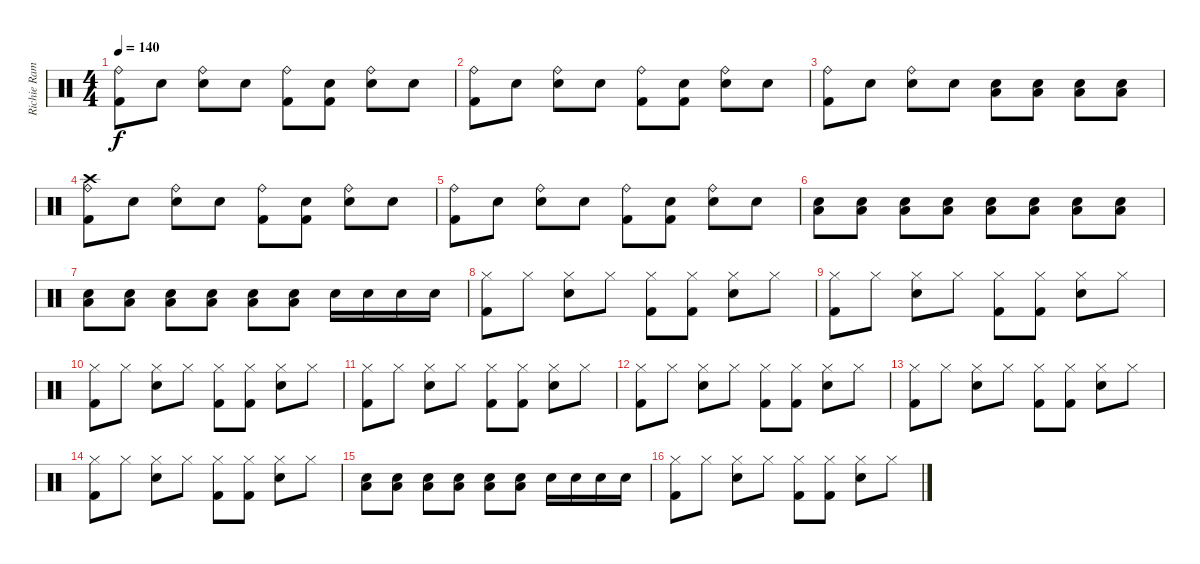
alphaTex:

\track ("Richie Ramone - Drums" "Richie Ram") {instrument percussion}
\staff {score}
\articulation defaults
\ts (4 4)
\tempo 140
\clef neutral
\ks c
("Ride (bell)" "Kick (hit) 2").8{dy f} "Snare (hit)"{x}.8 ("Ride (bell)" "Electric Snare (hit)").8 "Snare (hit)"{x}.8 ("Ride (bell)" "Kick (hit) 2").8 ("Snare (hit)"{x} "Kick (hit) 2").8 ("Ride (bell)" "Electric Snare (hit)").8 "Snare (hit)"{x}.8 |
("Ride (bell)" "Kick (hit) 2").8 "Snare (hit)"{x}.8 ("Ride (bell)" "Electric Snare (hit)").8 "Snare (hit)"{x}.8 ("Ride (bell)" "Kick (hit) 2").8 ("Snare (hit)"{x} "Kick (hit) 2").8 ("Ride (bell)" "Electric Snare (hit)").8 "Snare (hit)"{x}.8 |
("Ride (bell)" "Kick (hit) 2").8 "Snare (hit)"{x}.8 ("Ride (bell)" "Electric Snare (hit)").8 "Snare (hit)"{x}.8 ("Electric Snare (hit)" "Low Tom (hit)").8 ("Electric Snare (hit)" "Low Tom (hit)").8 ("Electric Snare (hit)" "Low Tom (hit)").8 ("Electric Snare (hit)" "Low Tom (hit)").8 |
("Ride (bell)" "Kick (hit) 2" "Crash high (hit)").8 "Snare (hit)"{x}.8 ("Ride (bell)" "Electric Snare (hit)").8 "Snare (hit)"{x}.8 ("Ride (bell)" "Kick (hit) 2").8 ("Snare (hit)"{x} "Kick (hit) 2").8 ("Ride (bell)" "Electric Snare (hit)").8 "Snare (hit)"{x}.8 |
("Ride (bell)" "Kick (hit) 2").8 "Snare (hit)"{x}.8 ("Ride (bell)" "Electric Snare (hit)").8 "Snare (hit)"{x}.8 ("Ride (bell)" "Kick (hit) 2").8 ("Snare (hit)"{x} "Kick (hit) 2").8 ("Ride (bell)" "Electric Snare (hit)").8 "Snare (hit)"{x}.8 |
("Electric Snare (hit)" "Low Tom (hit)").8 ("Electric Snare (hit)" "Low Tom (hit)").8 ("Electric Snare (hit)" "Low Tom (hit)").8 ("Electric Snare (hit)" "Low Tom (hit)").8 ("Electric Snare (hit)" "Low Tom (hit)").8 ("Electric Snare (hit)" "Low Tom (hit)").8 ("Electric Snare (hit)" "Low Tom (hit)").8 ("Electric Snare (hit)" "Low Tom (hit)").8 |
("Electric Snare (hit)" "Low Tom (hit)").8 ("Electric Snare (hit)" "Low Tom (hit)").8 ("Electric Snare (hit)" "Low Tom (hit)").8 ("Electric Snare (hit)" "Low Tom (hit)").8 ("Electric Snare (hit)" "Low Tom (hit)").8 ("Electric Snare (hit)" "Low Tom (hit)").8 "Electric Snare (hit)".16 "Electric Snare (hit)".16 "Electric Snare (hit)".16 "Electric Snare (hit)".16 |
("Hi-Hat (closed)" "Kick (hit) 2").8 "Hi-Hat (closed)".8 ("Hi-Hat (closed)" "Electric Snare (hit)").8 "Hi-Hat (closed)".8 ("Hi-Hat (closed)" "Kick (hit) 2").8 ("Hi-Hat (closed)" "Kick (hit) 2").8 ("Hi-Hat (closed)" "Electric Snare (hit)").8 "Hi-Hat (closed)".8 |
("Hi-Hat (closed)" "Kick (hit) 2").8 "Hi-Hat (closed)".8 ("Hi-Hat (closed)" "Electric Snare (hit)").8 "Hi-Hat (closed)".8 ("Hi-Hat (closed)" "Kick (hit) 2").8 ("Hi-Hat (closed)" "Kick (hit) 2").8 ("Hi-Hat (closed)" "Electric Snare (hit)").8 "Hi-Hat (closed)".8 |
("Hi-Hat (closed)" "Kick (hit) 2").8 "Hi-Hat (closed)".8 ("Hi-Hat (closed)" "Electric Snare (hit)").8 "Hi-Hat (closed)".8 ("Hi-Hat (closed)" "Kick (hit) 2").8 ("Hi-Hat (closed)" "Kick (hit) 2").8 ("Hi-Hat (closed)" "Electric Snare (hit)").8 "Hi-Hat (closed)".8 |
("Hi-Hat (closed)" "Kick (hit) 2").8 "Hi-Hat (closed)".8 ("Hi-Hat (closed)" "Electric Snare (hit)").8 "Hi-Hat (closed)".8 ("Hi-Hat (closed)" "Kick (hit) 2").8 ("Hi-Hat (closed)" "Kick (hit) 2").8 ("Hi-Hat (closed)" "Electric Snare (hit)").8 "Hi-Hat (closed)".8 |
("Hi-Hat (closed)" "Kick (hit) 2").8 "Hi-Hat (closed)".8 ("Hi-Hat (closed)" "Electric Snare (hit)").8 "Hi-Hat (closed)".8 ("Hi-Hat (closed)" "Kick (hit) 2").8 ("Hi-Hat (closed)" "Kick (hit) 2").8 ("Hi-Hat (closed)" "Electric Snare (hit)").8 "Hi-Hat (closed)".8 |
("Hi-Hat (closed)" "Kick (hit) 2").8 "Hi-Hat (closed)".8 ("Hi-Hat (closed)" "Electric Snare (hit)").8 "Hi-Hat (closed)".8 ("Hi-Hat (closed)" "Kick (hit) 2").8 ("Hi-Hat (closed)" "Kick (hit) 2").8 ("Hi-Hat (closed)" "Electric Snare (hit)").8 "Hi-Hat (closed)".8 |
("Hi-Hat (closed)" "Kick (hit) 2").8 "Hi-Hat (closed)".8 ("Hi-Hat (closed)" "Electric Snare (hit)").8 "Hi-Hat (closed)".8 ("Hi-Hat (closed)" "Kick (hit) 2").8 ("Hi-Hat (closed)" "Kick (hit) 2").8 ("Hi-Hat (closed)" "Electric Snare (hit)").8 "Hi-Hat (closed)".8 |
("Electric Snare (hit)" "Low Tom (hit)").8 ("Electric Snare (hit)" "Low Tom (hit)").8 ("Electric Snare (hit)" "Low Tom (hit)").8 ("Electric Snare (hit)" "Low Tom (hit)").8 ("Electric Snare (hit)" "Low Tom (hit)").8 ("Electric Snare (hit)" "Low Tom (hit)").8 "Electric Snare (hit)".16 "Electric Snare (hit)".16 "Electric Snare (hit)".16 "Electric Snare (hit)".16 |
("Hi-Hat (closed)" "Kick (hit) 2").8 "Hi-Hat (closed)".8 ("Hi-Hat (closed)" "Electric Snare (hit)").8 "Hi-Hat (closed)".8 ("Hi-Hat (closed)" "Kick (hit) 2").8 ("Hi-Hat (closed)" "Kick (hit) 2").8 ("Hi-Hat (closed)" "Electric Snare (hit)").8 "Hi-Hat (closed)".8
